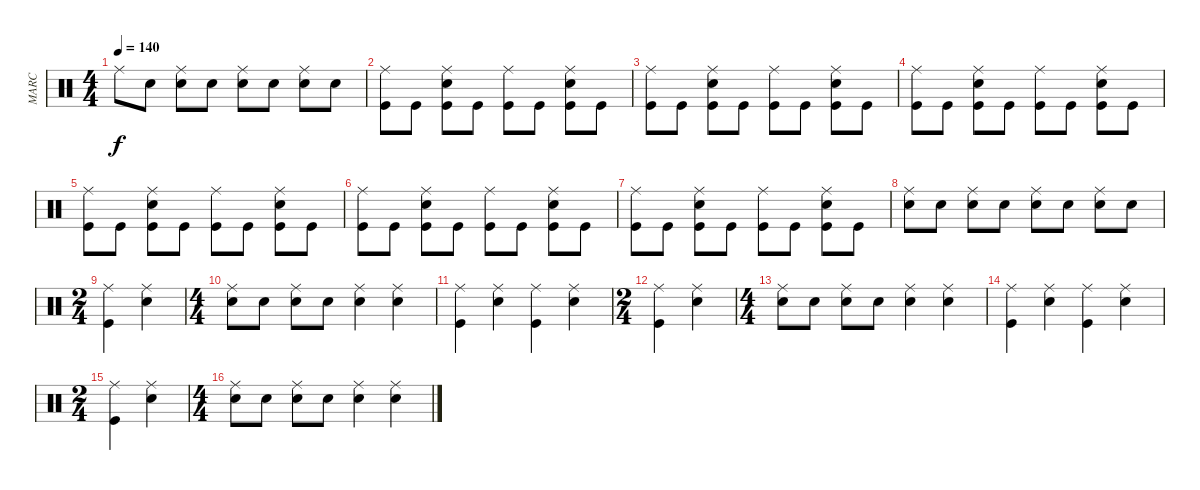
\track ("MARC" "MARC") {instrument percussion}
\staff {score}
\articulation defaults
\ts (4 4)
\tempo 140
\clef neutral
\ks c "Ride (middle)".8{dy f} "Snare (hit) 2".8
("Snare (hit) 2" "Ride (middle)").8 "Snare (hit) 2".8 ("Snare (hit) 2" "Ride (middle)").8 "Snare (hit) 2".8 ("Snare (hit) 2" "Ride (middle)").8 "Snare (hit) 2".8 |
("Kick (hit)" "Ride (middle)").8 "Kick (hit)".8 ("Kick (hit)" "Snare (hit) 2" "Ride (middle)").8 "Kick (hit)".8 ("Kick (hit)" "Ride (middle)").8 "Kick (hit)".8 ("Kick (hit)" "Snare (hit) 2" "Ride (middle)").8 "Kick (hit)".8 |
("Kick (hit)" "Ride (middle)").8 "Kick (hit)".8 ("Kick (hit)" "Snare (hit) 2" "Ride (middle)").8 "Kick (hit)".8 ("Kick (hit)" "Ride (middle)").8 "Kick (hit)".8 ("Kick (hit)" "Snare (hit) 2" "Ride (middle)").8 "Kick (hit)".8 |
("Kick (hit)" "Ride (middle)").8 "Kick (hit)".8 ("Kick (hit)" "Snare (hit) 2" "Ride (middle)").8 "Kick (hit)".8 ("Kick (hit)" "Ride (middle)").8 "Kick (hit)".8 ("Kick (hit)" "Snare (hit) 2" "Ride (middle)").8 "Kick (hit)".8 |
("Kick (hit)" "Ride (middle)").8 "Kick (hit)".8 ("Kick (hit)" "Snare (hit) 2" "Ride (middle)").8 "Kick (hit)".8 ("Kick (hit)" "Ride (middle)").8 "Kick (hit)".8 ("Kick (hit)" "Snare (hit) 2" "Ride (middle)").8 "Kick (hit)".8 |
("Kick (hit)" "Ride (middle)").8 "Kick (hit)".8 ("Kick (hit)" "Snare (hit) 2" "Ride (middle)").8 "Kick (hit)".8 ("Kick (hit)" "Ride (middle)").8 "Kick (hit)".8 ("Kick (hit)" "Snare (hit) 2" "Ride (middle)").8 "Kick (hit)".8 |
("Kick (hit)" "Ride (middle)").8 "Kick (hit)".8 ("Kick (hit)" "Snare (hit) 2" "Ride (middle)").8 "Kick (hit)".8 ("Kick (hit)" "Ride (middle)").8 "Kick (hit)".8 ("Kick (hit)" "Snare (hit) 2" "Ride (middle)").8 "Kick (hit)".8 |
("Snare (hit) 2" "Ride (middle)").8 "Snare (hit) 2".8 ("Snare (hit) 2" "Ride (middle)").8 "Snare (hit) 2".8 ("Snare (hit) 2" "Ride (middle)").8 "Snare (hit) 2".8 ("Snare (hit) 2" "Ride (middle)").8 "Snare (hit) 2".8 |
\ts (2 4)
("Kick (hit)" "Ride (middle)").4 ("Snare (hit) 2" "Ride (middle)").4 |
\ts (4 4)
("Snare (hit) 2" "Ride (middle)").8 "Snare (hit) 2".8 ("Snare (hit) 2" "Ride (middle)").8 "Snare (hit) 2".8 ("Snare (hit) 2" "Ride (middle)").4 ("Snare (hit) 2" "Ride (middle)").4 |
("Kick (hit)" "Ride (middle)").4 ("Snare (hit) 2" "Ride (middle)").4 ("Kick (hit)" "Ride (middle)").4 ("Snare (hit) 2" "Ride (middle)").4 |
\ts (2 4)
("Kick (hit)" "Ride (middle)").4 ("Snare (hit) 2" "Ride (middle)").4 |
\ts (4 4)
("Snare (hit) 2" "Ride (middle)").8 "Snare (hit) 2".8 ("Snare (hit) 2" "Ride (middle)").8 "Snare (hit) 2".8 ("Snare (hit) 2" "Ride (middle)").4 ("Snare (hit) 2" "Ride (middle)").4 |
("Kick (hit)" "Ride (middle)").4 ("Snare (hit) 2" "Ride (middle)").4 ("Kick (hit)" "Ride (middle)").4 ("Snare (hit) 2" "Ride (middle)").4 |
\ts (2 4)
("Kick (hit)" "Ride (middle)").4 ("Snare (hit) 2" "Ride (middle)").4 |
\ts (4 4)
("Snare (hit) 2" "Ride (middle)").8 "Snare (hit) 2".8 ("Snare (hit) 2" "Ride (middle)").8 "Snare (hit) 2".8 ("Snare (hit) 2" "Ride (middle)").4 ("Snare (hit) 2" "Ride (middle)").4
